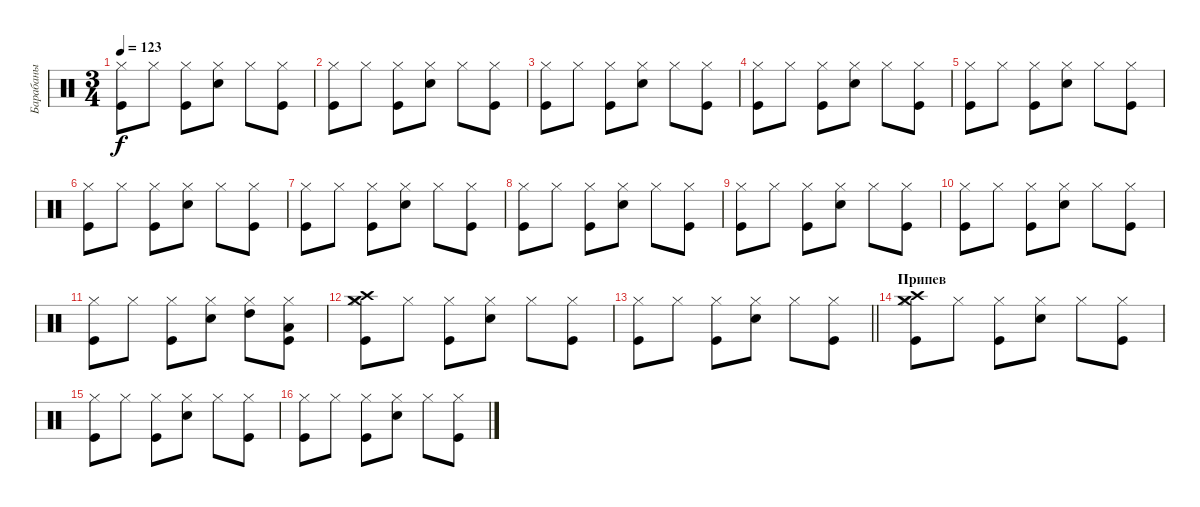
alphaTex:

\track ("Барабаны" "Барабаны") {instrument percussion}
\staff {score}
\articulation defaults
\ts (3 4)
\tempo 123
\clef neutral
\ks c
("Kick (hit)" "Hi-Hat (closed)").8{dy f} "Hi-Hat (closed)".8 ("Kick (hit)" "Hi-Hat (closed)").8 ("Snare (hit) 2" "Hi-Hat (closed)").8 "Hi-Hat (closed)".8 ("Kick (hit)" "Hi-Hat (closed)").8 |
("Kick (hit)" "Hi-Hat (closed)").8 "Hi-Hat (closed)".8 ("Kick (hit)" "Hi-Hat (closed)").8 ("Snare (hit) 2" "Hi-Hat (closed)").8 "Hi-Hat (closed)".8 ("Kick (hit)" "Hi-Hat (closed)").8 |
("Kick (hit)" "Hi-Hat (closed)").8 "Hi-Hat (closed)".8 ("Kick (hit)" "Hi-Hat (closed)").8 ("Snare (hit) 2" "Hi-Hat (closed)").8 "Hi-Hat (closed)".8 ("Kick (hit)" "Hi-Hat (closed)").8 |
("Kick (hit)" "Hi-Hat (closed)").8 "Hi-Hat (closed)".8 ("Kick (hit)" "Hi-Hat (closed)").8 ("Snare (hit) 2" "Hi-Hat (closed)").8 "Hi-Hat (closed)".8 ("Kick (hit)" "Hi-Hat (closed)").8 |
("Kick (hit)" "Hi-Hat (closed)").8 "Hi-Hat (closed)".8 ("Kick (hit)" "Hi-Hat (closed)").8 ("Snare (hit) 2" "Hi-Hat (closed)").8 "Hi-Hat (closed)".8 ("Kick (hit)" "Hi-Hat (closed)").8 |
("Kick (hit)" "Hi-Hat (closed)").8 "Hi-Hat (closed)".8 ("Kick (hit)" "Hi-Hat (closed)").8 ("Snare (hit) 2" "Hi-Hat (closed)").8 "Hi-Hat (closed)".8 ("Kick (hit)" "Hi-Hat (closed)").8 |
("Kick (hit)" "Hi-Hat (closed)").8 "Hi-Hat (closed)".8 ("Kick (hit)" "Hi-Hat (closed)").8 ("Snare (hit) 2" "Hi-Hat (closed)").8 "Hi-Hat (closed)".8 ("Kick (hit)" "Hi-Hat (closed)").8 |
("Kick (hit)" "Hi-Hat (closed)").8 "Hi-Hat (closed)".8 ("Kick (hit)" "Hi-Hat (closed)").8 ("Snare (hit) 2" "Hi-Hat (closed)").8 "Hi-Hat (closed)".8 ("Kick (hit)" "Hi-Hat (closed)").8 |
("Kick (hit)" "Hi-Hat (closed)").8 "Hi-Hat (closed)".8 ("Kick (hit)" "Hi-Hat (closed)").8 ("Snare (hit) 2" "Hi-Hat (closed)").8 "Hi-Hat (closed)".8 ("Kick (hit)" "Hi-Hat (closed)").8 |
("Kick (hit)" "Hi-Hat (closed)").8 "Hi-Hat (closed)".8 ("Kick (hit)" "Hi-Hat (closed)").8 ("Snare (hit) 2" "Hi-Hat (closed)").8 "Hi-Hat (closed)".8 ("Kick (hit)" "Hi-Hat (closed)").8 |
("Kick (hit)" "Hi-Hat (closed)").8 "Hi-Hat (closed)".8 ("Kick (hit)" "Hi-Hat (closed)").8 ("Snare (hit) 2" "Hi-Hat (closed)").8 ("Hi-Hat (closed)" "High Tom (hit)").8 ("Kick (hit)" "Hi-Hat (closed)" "Low Floor Tom (hit)").8 |
("Kick (hit)" "Hi-Hat (closed)" "Crash high (hit)" "Crash medium (hit)").8 "Hi-Hat (closed)".8 ("Kick (hit)" "Hi-Hat (closed)").8 ("Snare (hit) 2" "Hi-Hat (closed)").8 "Hi-Hat (closed)".8 ("Kick (hit)" "Hi-Hat (closed)").8 |
\barLineRight lightlight
("Kick (hit)" "Hi-Hat (closed)").8 "Hi-Hat (closed)".8 ("Kick (hit)" "Hi-Hat (closed)").8 ("Snare (hit) 2" "Hi-Hat (closed)").8 "Hi-Hat (closed)".8 ("Kick (hit)" "Hi-Hat (closed)").8 |
\section ("" "Припев")
("Kick (hit)" "Hi-Hat (closed)" "Crash high (hit)" "Crash medium (hit)").8 "Hi-Hat (closed)".8 ("Kick (hit)" "Hi-Hat (closed)").8 ("Snare (hit) 2" "Hi-Hat (closed)").8 "Hi-Hat (closed)".8 ("Kick (hit)" "Hi-Hat (closed)").8 |
("Kick (hit)" "Hi-Hat (closed)").8 "Hi-Hat (closed)".8 ("Kick (hit)" "Hi-Hat (closed)").8 ("Snare (hit) 2" "Hi-Hat (closed)").8 "Hi-Hat (closed)".8 ("Kick (hit)" "Hi-Hat (closed)").8 |
("Kick (hit)" "Hi-Hat (closed)").8 "Hi-Hat (closed)".8 ("Kick (hit)" "Hi-Hat (closed)").8 ("Snare (hit) 2" "Hi-Hat (closed)").8 "Hi-Hat (closed)".8 ("Kick (hit)" "Hi-Hat (closed)").8
